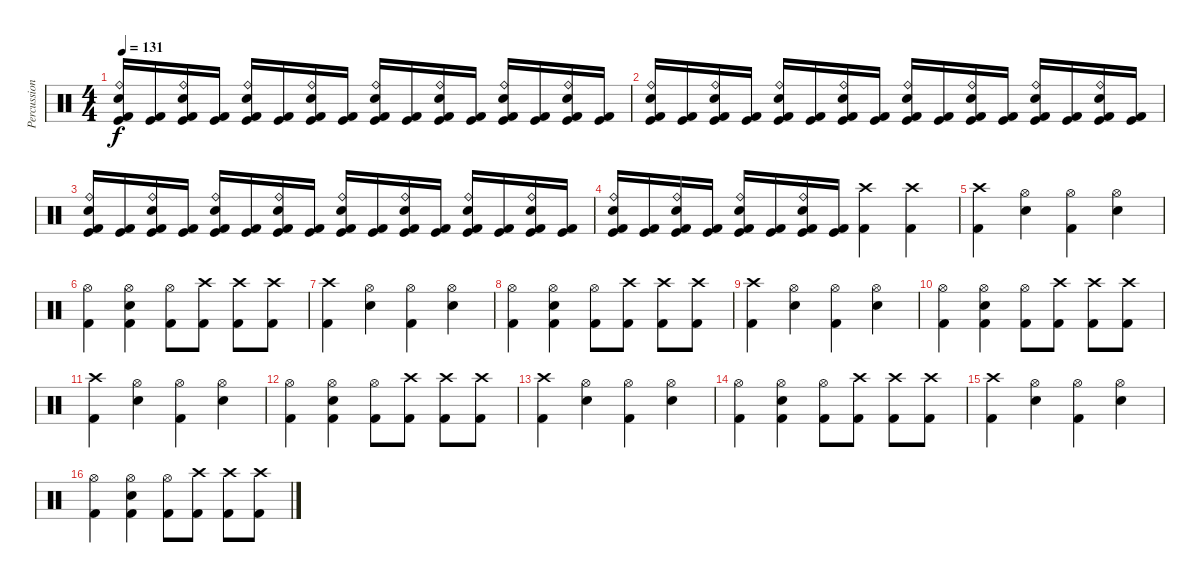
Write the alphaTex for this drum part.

\track ("Percussion" "Percussion") {instrument percussion}
\staff {score}
\articulation defaults
\ts (4 4)
\tempo 131
\clef neutral
\ks c
("Snare (hit) 2" "Ride (bell)" "Kick (hit)" "Kick (hit) 2").16{dy f} ("Kick (hit)" "Kick (hit) 2").16 ("Snare (hit) 2" "Ride (bell)" "Kick (hit)" "Kick (hit) 2").16 ("Kick (hit)" "Kick (hit) 2").16 ("Snare (hit) 2" "Ride (bell)" "Kick (hit)" "Kick (hit) 2").16 ("Kick (hit)" "Kick (hit) 2").16 ("Snare (hit) 2" "Ride (bell)" "Kick (hit)" "Kick (hit) 2").16 ("Kick (hit)" "Kick (hit) 2").16 ("Snare (hit) 2" "Ride (bell)" "Kick (hit)" "Kick (hit) 2").16 ("Kick (hit)" "Kick (hit) 2").16 ("Snare (hit) 2" "Ride (bell)" "Kick (hit)" "Kick (hit) 2").16 ("Kick (hit)" "Kick (hit) 2").16 ("Snare (hit) 2" "Ride (bell)" "Kick (hit)" "Kick (hit) 2").16 ("Kick (hit)" "Kick (hit) 2").16 ("Snare (hit) 2" "Ride (bell)" "Kick (hit)" "Kick (hit) 2").16 ("Kick (hit)" "Kick (hit) 2").16 |
("Snare (hit) 2" "Ride (bell)" "Kick (hit)" "Kick (hit) 2").16 ("Kick (hit)" "Kick (hit) 2").16 ("Snare (hit) 2" "Ride (bell)" "Kick (hit)" "Kick (hit) 2").16 ("Kick (hit)" "Kick (hit) 2").16 ("Snare (hit) 2" "Ride (bell)" "Kick (hit)" "Kick (hit) 2").16 ("Kick (hit)" "Kick (hit) 2").16 ("Snare (hit) 2" "Ride (bell)" "Kick (hit)" "Kick (hit) 2").16 ("Kick (hit)" "Kick (hit) 2").16 ("Snare (hit) 2" "Ride (bell)" "Kick (hit)" "Kick (hit) 2").16 ("Kick (hit)" "Kick (hit) 2").16 ("Snare (hit) 2" "Ride (bell)" "Kick (hit)" "Kick (hit) 2").16 ("Kick (hit)" "Kick (hit) 2").16 ("Snare (hit) 2" "Ride (bell)" "Kick (hit)" "Kick (hit) 2").16 ("Kick (hit)" "Kick (hit) 2").16 ("Snare (hit) 2" "Ride (bell)" "Kick (hit)" "Kick (hit) 2").16 ("Kick (hit)" "Kick (hit) 2").16 |
("Snare (hit) 2" "Ride (bell)" "Kick (hit)" "Kick (hit) 2").16 ("Kick (hit)" "Kick (hit) 2").16 ("Snare (hit) 2" "Ride (bell)" "Kick (hit)" "Kick (hit) 2").16 ("Kick (hit)" "Kick (hit) 2").16 ("Snare (hit) 2" "Ride (bell)" "Kick (hit)" "Kick (hit) 2").16 ("Kick (hit)" "Kick (hit) 2").16 ("Snare (hit) 2" "Ride (bell)" "Kick (hit)" "Kick (hit) 2").16 ("Kick (hit)" "Kick (hit) 2").16 ("Snare (hit) 2" "Ride (bell)" "Kick (hit)" "Kick (hit) 2").16 ("Kick (hit)" "Kick (hit) 2").16 ("Snare (hit) 2" "Ride (bell)" "Kick (hit)" "Kick (hit) 2").16 ("Kick (hit)" "Kick (hit) 2").16 ("Snare (hit) 2" "Ride (bell)" "Kick (hit)" "Kick (hit) 2").16 ("Kick (hit)" "Kick (hit) 2").16 ("Snare (hit) 2" "Ride (bell)" "Kick (hit)" "Kick (hit) 2").16 ("Kick (hit)" "Kick (hit) 2").16 |
("Snare (hit) 2" "Ride (bell)" "Kick (hit)" "Kick (hit) 2").16 ("Kick (hit)" "Kick (hit) 2").16 ("Snare (hit) 2" "Ride (bell)" "Kick (hit)" "Kick (hit) 2").16 ("Kick (hit)" "Kick (hit) 2").16 ("Snare (hit) 2" "Ride (bell)" "Kick (hit)" "Kick (hit) 2").16 ("Kick (hit)" "Kick (hit) 2").16 ("Snare (hit) 2" "Ride (bell)" "Kick (hit)" "Kick (hit) 2").16 ("Kick (hit)" "Kick (hit) 2").16 ("Crash high (hit)" "Kick (hit) 2").4 ("Crash high (hit)" "Kick (hit) 2").4 |
("Crash high (hit)" "Kick (hit) 2").4 ("Hi-Hat (open)" "Snare (hit) 2").4 ("Hi-Hat (open)" "Kick (hit) 2").4 ("Hi-Hat (open)" "Snare (hit) 2").4 |
("Hi-Hat (open)" "Kick (hit) 2").4 ("Hi-Hat (open)" "Snare (hit) 2" "Kick (hit) 2").4 ("Hi-Hat (open)" "Kick (hit) 2").8 ("Crash high (hit)" "Kick (hit) 2").8 ("Crash high (hit)" "Kick (hit) 2").8 ("Crash high (hit)" "Kick (hit) 2").8 |
("Crash high (hit)" "Kick (hit) 2").4 ("Hi-Hat (open)" "Snare (hit) 2").4 ("Hi-Hat (open)" "Kick (hit) 2").4 ("Hi-Hat (open)" "Snare (hit) 2").4 |
("Hi-Hat (open)" "Kick (hit) 2").4 ("Hi-Hat (open)" "Snare (hit) 2" "Kick (hit) 2").4 ("Hi-Hat (open)" "Kick (hit) 2").8 ("Crash high (hit)" "Kick (hit) 2").8 ("Crash high (hit)" "Kick (hit) 2").8 ("Crash high (hit)" "Kick (hit) 2").8 |
("Crash high (hit)" "Kick (hit) 2").4 ("Hi-Hat (open)" "Snare (hit) 2").4 ("Hi-Hat (open)" "Kick (hit) 2").4 ("Hi-Hat (open)" "Snare (hit) 2").4 |
("Hi-Hat (open)" "Kick (hit) 2").4 ("Hi-Hat (open)" "Snare (hit) 2" "Kick (hit) 2").4 ("Hi-Hat (open)" "Kick (hit) 2").8 ("Crash high (hit)" "Kick (hit) 2").8 ("Crash high (hit)" "Kick (hit) 2").8 ("Crash high (hit)" "Kick (hit) 2").8 |
("Crash high (hit)" "Kick (hit) 2").4 ("Hi-Hat (open)" "Snare (hit) 2").4 ("Hi-Hat (open)" "Kick (hit) 2").4 ("Hi-Hat (open)" "Snare (hit) 2").4 |
("Hi-Hat (open)" "Kick (hit) 2").4 ("Hi-Hat (open)" "Snare (hit) 2" "Kick (hit) 2").4 ("Hi-Hat (open)" "Kick (hit) 2").8 ("Crash high (hit)" "Kick (hit) 2").8 ("Crash high (hit)" "Kick (hit) 2").8 ("Crash high (hit)" "Kick (hit) 2").8 |
("Crash high (hit)" "Kick (hit) 2").4 ("Hi-Hat (open)" "Snare (hit) 2").4 ("Hi-Hat (open)" "Kick (hit) 2").4 ("Hi-Hat (open)" "Snare (hit) 2").4 |
("Hi-Hat (open)" "Kick (hit) 2").4 ("Hi-Hat (open)" "Snare (hit) 2" "Kick (hit) 2").4 ("Hi-Hat (open)" "Kick (hit) 2").8 ("Crash high (hit)" "Kick (hit) 2").8 ("Crash high (hit)" "Kick (hit) 2").8 ("Crash high (hit)" "Kick (hit) 2").8 |
("Crash high (hit)" "Kick (hit) 2").4 ("Hi-Hat (open)" "Snare (hit) 2").4 ("Hi-Hat (open)" "Kick (hit) 2").4 ("Hi-Hat (open)" "Snare (hit) 2").4 |
("Hi-Hat (open)" "Kick (hit) 2").4 ("Hi-Hat (open)" "Snare (hit) 2" "Kick (hit) 2").4 ("Hi-Hat (open)" "Kick (hit) 2").8 ("Crash high (hit)" "Kick (hit) 2").8 ("Crash high (hit)" "Kick (hit) 2").8 ("Crash high (hit)" "Kick (hit) 2").8
